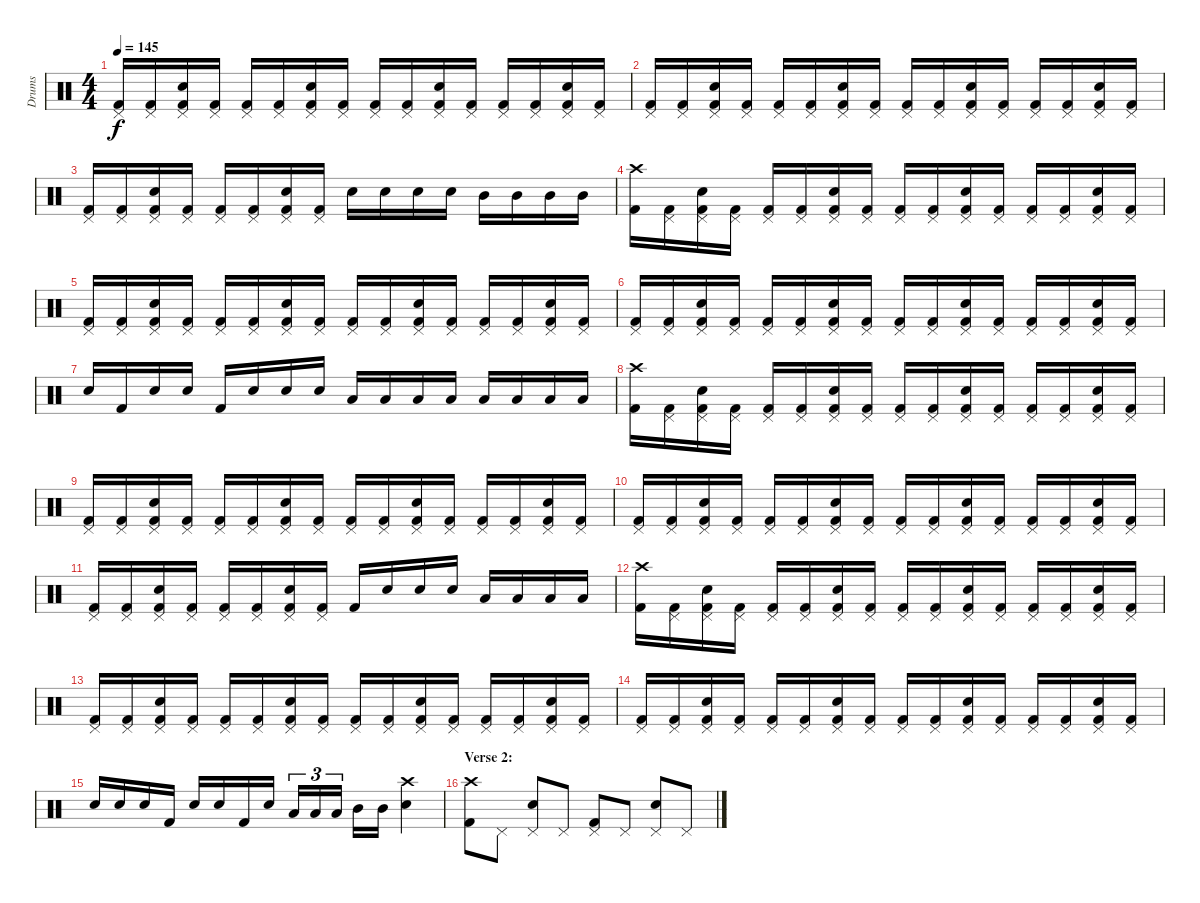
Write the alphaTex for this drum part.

\track ("Drums" "Drums") {instrument percussion}
\staff {score}
\articulation defaults
\ts (4 4)
\tempo 145
\clef neutral
\ks c
("Pedal Hi-Hat (hit)" "Kick (hit) 2").16{dy f} ("Pedal Hi-Hat (hit)" "Kick (hit) 2").16 ("Pedal Hi-Hat (hit)" "Electric Snare (hit)" "Kick (hit) 2").16 ("Pedal Hi-Hat (hit)" "Kick (hit) 2").16 ("Pedal Hi-Hat (hit)" "Kick (hit) 2").16 ("Pedal Hi-Hat (hit)" "Kick (hit) 2").16 ("Pedal Hi-Hat (hit)" "Electric Snare (hit)" "Kick (hit) 2").16 ("Pedal Hi-Hat (hit)" "Kick (hit) 2").16 ("Pedal Hi-Hat (hit)" "Kick (hit) 2").16 ("Pedal Hi-Hat (hit)" "Kick (hit) 2").16 ("Pedal Hi-Hat (hit)" "Electric Snare (hit)" "Kick (hit) 2").16 ("Pedal Hi-Hat (hit)" "Kick (hit) 2").16 ("Pedal Hi-Hat (hit)" "Kick (hit) 2").16 ("Pedal Hi-Hat (hit)" "Kick (hit) 2").16 ("Pedal Hi-Hat (hit)" "Electric Snare (hit)" "Kick (hit) 2").16 ("Pedal Hi-Hat (hit)" "Kick (hit) 2").16 |
("Pedal Hi-Hat (hit)" "Kick (hit) 2").16 ("Pedal Hi-Hat (hit)" "Kick (hit) 2").16 ("Pedal Hi-Hat (hit)" "Electric Snare (hit)" "Kick (hit) 2").16 ("Pedal Hi-Hat (hit)" "Kick (hit) 2").16 ("Pedal Hi-Hat (hit)" "Kick (hit) 2").16 ("Pedal Hi-Hat (hit)" "Kick (hit) 2").16 ("Pedal Hi-Hat (hit)" "Electric Snare (hit)" "Kick (hit) 2").16 ("Pedal Hi-Hat (hit)" "Kick (hit) 2").16 ("Pedal Hi-Hat (hit)" "Kick (hit) 2").16 ("Pedal Hi-Hat (hit)" "Kick (hit) 2").16 ("Pedal Hi-Hat (hit)" "Electric Snare (hit)" "Kick (hit) 2").16 ("Pedal Hi-Hat (hit)" "Kick (hit) 2").16 ("Pedal Hi-Hat (hit)" "Kick (hit) 2").16 ("Pedal Hi-Hat (hit)" "Kick (hit) 2").16 ("Pedal Hi-Hat (hit)" "Electric Snare (hit)" "Kick (hit) 2").16 ("Pedal Hi-Hat (hit)" "Kick (hit) 2").16 |
("Pedal Hi-Hat (hit)" "Kick (hit) 2").16 ("Pedal Hi-Hat (hit)" "Kick (hit) 2").16 ("Pedal Hi-Hat (hit)" "Electric Snare (hit)" "Kick (hit) 2").16 ("Pedal Hi-Hat (hit)" "Kick (hit) 2").16 ("Pedal Hi-Hat (hit)" "Kick (hit) 2").16 ("Pedal Hi-Hat (hit)" "Kick (hit) 2").16 ("Pedal Hi-Hat (hit)" "Electric Snare (hit)" "Kick (hit) 2").16 ("Pedal Hi-Hat (hit)" "Kick (hit) 2").16 "Electric Snare (hit)".16 "Electric Snare (hit)".16 "Electric Snare (hit)".16 "Electric Snare (hit)".16 "Mid Tom (hit)".16 "Mid Tom (hit)".16 "Mid Tom (hit)".16 "Mid Tom (hit)".16 |
("Crash high (hit)" "Kick (hit) 2").16 ("Pedal Hi-Hat (hit)" "Kick (hit) 2").16 ("Pedal Hi-Hat (hit)" "Electric Snare (hit)" "Kick (hit) 2").16 ("Pedal Hi-Hat (hit)" "Kick (hit) 2").16 ("Pedal Hi-Hat (hit)" "Kick (hit) 2").16 ("Pedal Hi-Hat (hit)" "Kick (hit) 2").16 ("Pedal Hi-Hat (hit)" "Electric Snare (hit)" "Kick (hit) 2").16 ("Pedal Hi-Hat (hit)" "Kick (hit) 2").16 ("Pedal Hi-Hat (hit)" "Kick (hit) 2").16 ("Pedal Hi-Hat (hit)" "Kick (hit) 2").16 ("Pedal Hi-Hat (hit)" "Electric Snare (hit)" "Kick (hit) 2").16 ("Pedal Hi-Hat (hit)" "Kick (hit) 2").16 ("Pedal Hi-Hat (hit)" "Kick (hit) 2").16 ("Pedal Hi-Hat (hit)" "Kick (hit) 2").16 ("Pedal Hi-Hat (hit)" "Electric Snare (hit)" "Kick (hit) 2").16 ("Pedal Hi-Hat (hit)" "Kick (hit) 2").16 |
("Pedal Hi-Hat (hit)" "Kick (hit) 2").16 ("Pedal Hi-Hat (hit)" "Kick (hit) 2").16 ("Pedal Hi-Hat (hit)" "Electric Snare (hit)" "Kick (hit) 2").16 ("Pedal Hi-Hat (hit)" "Kick (hit) 2").16 ("Pedal Hi-Hat (hit)" "Kick (hit) 2").16 ("Pedal Hi-Hat (hit)" "Kick (hit) 2").16 ("Pedal Hi-Hat (hit)" "Electric Snare (hit)" "Kick (hit) 2").16 ("Pedal Hi-Hat (hit)" "Kick (hit) 2").16 ("Pedal Hi-Hat (hit)" "Kick (hit) 2").16 ("Pedal Hi-Hat (hit)" "Kick (hit) 2").16 ("Pedal Hi-Hat (hit)" "Electric Snare (hit)" "Kick (hit) 2").16 ("Pedal Hi-Hat (hit)" "Kick (hit) 2").16 ("Pedal Hi-Hat (hit)" "Kick (hit) 2").16 ("Pedal Hi-Hat (hit)" "Kick (hit) 2").16 ("Pedal Hi-Hat (hit)" "Electric Snare (hit)" "Kick (hit) 2").16 ("Pedal Hi-Hat (hit)" "Kick (hit) 2").16 |
("Pedal Hi-Hat (hit)" "Kick (hit) 2").16 ("Pedal Hi-Hat (hit)" "Kick (hit) 2").16 ("Pedal Hi-Hat (hit)" "Electric Snare (hit)" "Kick (hit) 2").16 ("Pedal Hi-Hat (hit)" "Kick (hit) 2").16 ("Pedal Hi-Hat (hit)" "Kick (hit) 2").16 ("Pedal Hi-Hat (hit)" "Kick (hit) 2").16 ("Pedal Hi-Hat (hit)" "Electric Snare (hit)" "Kick (hit) 2").16 ("Pedal Hi-Hat (hit)" "Kick (hit) 2").16 ("Pedal Hi-Hat (hit)" "Kick (hit) 2").16 ("Pedal Hi-Hat (hit)" "Kick (hit) 2").16 ("Pedal Hi-Hat (hit)" "Electric Snare (hit)" "Kick (hit) 2").16 ("Pedal Hi-Hat (hit)" "Kick (hit) 2").16 ("Pedal Hi-Hat (hit)" "Kick (hit) 2").16 ("Pedal Hi-Hat (hit)" "Kick (hit) 2").16 ("Pedal Hi-Hat (hit)" "Electric Snare (hit)" "Kick (hit) 2").16 ("Pedal Hi-Hat (hit)" "Kick (hit) 2").16 |
"Electric Snare (hit)".16 "Kick (hit) 2".16 "Electric Snare (hit)".16 "Electric Snare (hit)".16 "Kick (hit) 2".16 "Electric Snare (hit)".16 "Electric Snare (hit)".16 "Electric Snare (hit)".16 "Low Tom (hit)".16 "Low Tom (hit)".16 "Low Tom (hit)".16 "Low Tom (hit)".16 "Low Tom (hit)".16 "Low Tom (hit)".16 "Low Tom (hit)".16 "Low Tom (hit)".16 |
("Crash high (hit)" "Kick (hit) 2").16 ("Pedal Hi-Hat (hit)" "Kick (hit) 2").16 ("Pedal Hi-Hat (hit)" "Electric Snare (hit)" "Kick (hit) 2").16 ("Pedal Hi-Hat (hit)" "Kick (hit) 2").16 ("Pedal Hi-Hat (hit)" "Kick (hit) 2").16 ("Pedal Hi-Hat (hit)" "Kick (hit) 2").16 ("Pedal Hi-Hat (hit)" "Electric Snare (hit)" "Kick (hit) 2").16 ("Pedal Hi-Hat (hit)" "Kick (hit) 2").16 ("Pedal Hi-Hat (hit)" "Kick (hit) 2").16 ("Pedal Hi-Hat (hit)" "Kick (hit) 2").16 ("Pedal Hi-Hat (hit)" "Electric Snare (hit)" "Kick (hit) 2").16 ("Pedal Hi-Hat (hit)" "Kick (hit) 2").16 ("Pedal Hi-Hat (hit)" "Kick (hit) 2").16 ("Pedal Hi-Hat (hit)" "Kick (hit) 2").16 ("Pedal Hi-Hat (hit)" "Electric Snare (hit)" "Kick (hit) 2").16 ("Pedal Hi-Hat (hit)" "Kick (hit) 2").16 |
("Pedal Hi-Hat (hit)" "Kick (hit) 2").16 ("Pedal Hi-Hat (hit)" "Kick (hit) 2").16 ("Pedal Hi-Hat (hit)" "Electric Snare (hit)" "Kick (hit) 2").16 ("Pedal Hi-Hat (hit)" "Kick (hit) 2").16 ("Pedal Hi-Hat (hit)" "Kick (hit) 2").16 ("Pedal Hi-Hat (hit)" "Kick (hit) 2").16 ("Pedal Hi-Hat (hit)" "Electric Snare (hit)" "Kick (hit) 2").16 ("Pedal Hi-Hat (hit)" "Kick (hit) 2").16 ("Pedal Hi-Hat (hit)" "Kick (hit) 2").16 ("Pedal Hi-Hat (hit)" "Kick (hit) 2").16 ("Pedal Hi-Hat (hit)" "Electric Snare (hit)" "Kick (hit) 2").16 ("Pedal Hi-Hat (hit)" "Kick (hit) 2").16 ("Pedal Hi-Hat (hit)" "Kick (hit) 2").16 ("Pedal Hi-Hat (hit)" "Kick (hit) 2").16 ("Pedal Hi-Hat (hit)" "Electric Snare (hit)" "Kick (hit) 2").16 ("Pedal Hi-Hat (hit)" "Kick (hit) 2").16 |
("Pedal Hi-Hat (hit)" "Kick (hit) 2").16 ("Pedal Hi-Hat (hit)" "Kick (hit) 2").16 ("Pedal Hi-Hat (hit)" "Electric Snare (hit)" "Kick (hit) 2").16 ("Pedal Hi-Hat (hit)" "Kick (hit) 2").16 ("Pedal Hi-Hat (hit)" "Kick (hit) 2").16 ("Pedal Hi-Hat (hit)" "Kick (hit) 2").16 ("Pedal Hi-Hat (hit)" "Electric Snare (hit)" "Kick (hit) 2").16 ("Pedal Hi-Hat (hit)" "Kick (hit) 2").16 ("Pedal Hi-Hat (hit)" "Kick (hit) 2").16 ("Pedal Hi-Hat (hit)" "Kick (hit) 2").16 ("Pedal Hi-Hat (hit)" "Electric Snare (hit)" "Kick (hit) 2").16 ("Pedal Hi-Hat (hit)" "Kick (hit) 2").16 ("Pedal Hi-Hat (hit)" "Kick (hit) 2").16 ("Pedal Hi-Hat (hit)" "Kick (hit) 2").16 ("Pedal Hi-Hat (hit)" "Electric Snare (hit)" "Kick (hit) 2").16 ("Pedal Hi-Hat (hit)" "Kick (hit) 2").16 |
("Pedal Hi-Hat (hit)" "Kick (hit) 2").16 ("Pedal Hi-Hat (hit)" "Kick (hit) 2").16 ("Pedal Hi-Hat (hit)" "Electric Snare (hit)" "Kick (hit) 2").16 ("Pedal Hi-Hat (hit)" "Kick (hit) 2").16 ("Pedal Hi-Hat (hit)" "Kick (hit) 2").16 ("Pedal Hi-Hat (hit)" "Kick (hit) 2").16 ("Pedal Hi-Hat (hit)" "Electric Snare (hit)" "Kick (hit) 2").16 ("Pedal Hi-Hat (hit)" "Kick (hit) 2").16 "Kick (hit) 2".16 "Electric Snare (hit)".16 "Electric Snare (hit)".16 "Electric Snare (hit)".16 "Low Tom (hit)".16 "Low Tom (hit)".16 "Low Tom (hit)".16 "Low Tom (hit)".16 |
("Crash high (hit)" "Kick (hit) 2").16 ("Pedal Hi-Hat (hit)" "Kick (hit) 2").16 ("Pedal Hi-Hat (hit)" "Electric Snare (hit)" "Kick (hit) 2").16 ("Pedal Hi-Hat (hit)" "Kick (hit) 2").16 ("Pedal Hi-Hat (hit)" "Kick (hit) 2").16 ("Pedal Hi-Hat (hit)" "Kick (hit) 2").16 ("Pedal Hi-Hat (hit)" "Electric Snare (hit)" "Kick (hit) 2").16 ("Pedal Hi-Hat (hit)" "Kick (hit) 2").16 ("Pedal Hi-Hat (hit)" "Kick (hit) 2").16 ("Pedal Hi-Hat (hit)" "Kick (hit) 2").16 ("Pedal Hi-Hat (hit)" "Electric Snare (hit)" "Kick (hit) 2").16 ("Pedal Hi-Hat (hit)" "Kick (hit) 2").16 ("Pedal Hi-Hat (hit)" "Kick (hit) 2").16 ("Pedal Hi-Hat (hit)" "Kick (hit) 2").16 ("Pedal Hi-Hat (hit)" "Electric Snare (hit)" "Kick (hit) 2").16 ("Pedal Hi-Hat (hit)" "Kick (hit) 2").16 |
("Pedal Hi-Hat (hit)" "Kick (hit) 2").16 ("Pedal Hi-Hat (hit)" "Kick (hit) 2").16 ("Pedal Hi-Hat (hit)" "Electric Snare (hit)" "Kick (hit) 2").16 ("Pedal Hi-Hat (hit)" "Kick (hit) 2").16 ("Pedal Hi-Hat (hit)" "Kick (hit) 2").16 ("Pedal Hi-Hat (hit)" "Kick (hit) 2").16 ("Pedal Hi-Hat (hit)" "Electric Snare (hit)" "Kick (hit) 2").16 ("Pedal Hi-Hat (hit)" "Kick (hit) 2").16 ("Pedal Hi-Hat (hit)" "Kick (hit) 2").16 ("Pedal Hi-Hat (hit)" "Kick (hit) 2").16 ("Pedal Hi-Hat (hit)" "Electric Snare (hit)" "Kick (hit) 2").16 ("Pedal Hi-Hat (hit)" "Kick (hit) 2").16 ("Pedal Hi-Hat (hit)" "Kick (hit) 2").16 ("Pedal Hi-Hat (hit)" "Kick (hit) 2").16 ("Pedal Hi-Hat (hit)" "Electric Snare (hit)" "Kick (hit) 2").16 ("Pedal Hi-Hat (hit)" "Kick (hit) 2").16 |
("Pedal Hi-Hat (hit)" "Kick (hit) 2").16 ("Pedal Hi-Hat (hit)" "Kick (hit) 2").16 ("Pedal Hi-Hat (hit)" "Electric Snare (hit)" "Kick (hit) 2").16 ("Pedal Hi-Hat (hit)" "Kick (hit) 2").16 ("Pedal Hi-Hat (hit)" "Kick (hit) 2").16 ("Pedal Hi-Hat (hit)" "Kick (hit) 2").16 ("Pedal Hi-Hat (hit)" "Electric Snare (hit)" "Kick (hit) 2").16 ("Pedal Hi-Hat (hit)" "Kick (hit) 2").16 ("Pedal Hi-Hat (hit)" "Kick (hit) 2").16 ("Pedal Hi-Hat (hit)" "Kick (hit) 2").16 ("Pedal Hi-Hat (hit)" "Electric Snare (hit)" "Kick (hit) 2").16 ("Pedal Hi-Hat (hit)" "Kick (hit) 2").16 ("Pedal Hi-Hat (hit)" "Kick (hit) 2").16 ("Pedal Hi-Hat (hit)" "Kick (hit) 2").16 ("Pedal Hi-Hat (hit)" "Electric Snare (hit)" "Kick (hit) 2").16 ("Pedal Hi-Hat (hit)" "Kick (hit) 2").16 |
"Electric Snare (hit)".16 "Electric Snare (hit)".16 "Electric Snare (hit)".16 "Kick (hit) 2".16 "Electric Snare (hit)".16 "Electric Snare (hit)".16 "Kick (hit) 2".16 "Electric Snare (hit)".16 "Low Tom (hit)".16{tu (3 2)} "Low Tom (hit)".16{tu (3 2)} "Low Tom (hit)".16{tu (3 2)} "Mid Tom (hit)".16 "Mid Tom (hit)".16 ("Crash high (hit)" "Electric Snare (hit)").4 |
\section ("" "Verse 2:")
("Crash high (hit)" "Kick (hit) 2").8 "Pedal Hi-Hat (hit)".8 ("Pedal Hi-Hat (hit)" "Electric Snare (hit)").8 "Pedal Hi-Hat (hit)".8 ("Pedal Hi-Hat (hit)" "Kick (hit) 2").8 "Pedal Hi-Hat (hit)".8 ("Pedal Hi-Hat (hit)" "Electric Snare (hit)").8 "Pedal Hi-Hat (hit)".8
